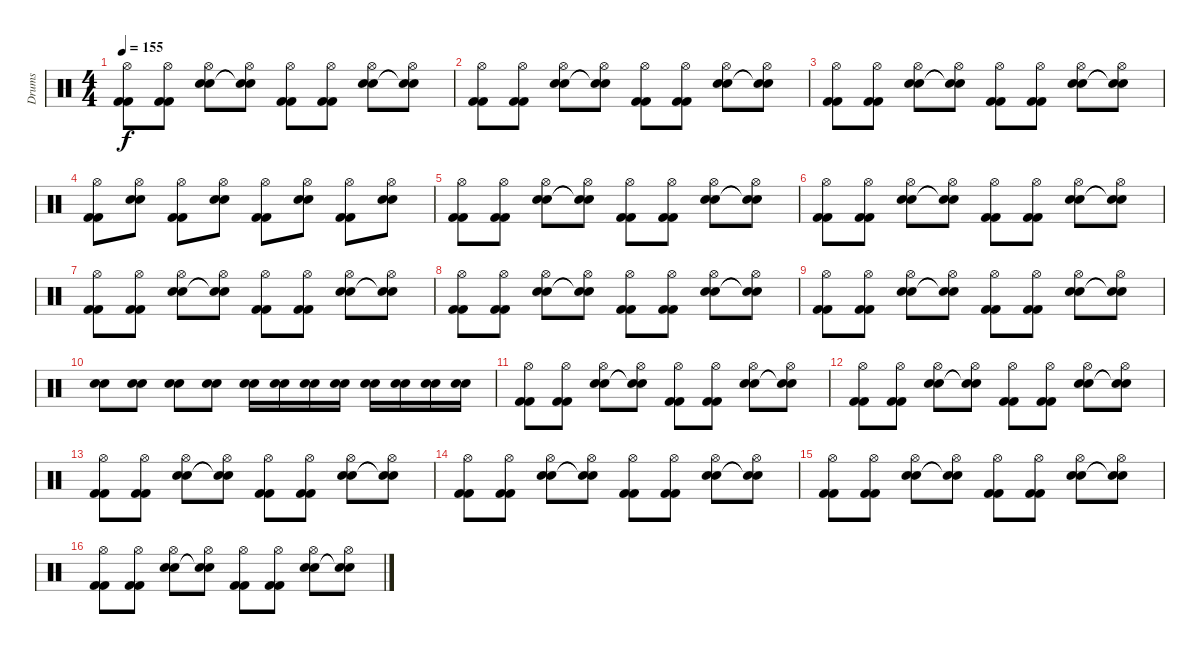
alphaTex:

\track ("Drums" "Drums") {instrument percussion}
\staff {score}
\articulation defaults
\ts (4 4)
\tempo 155
\clef neutral
\ks c
("Hi-Hat (open)" "Kick (hit) 2" "Kick (hit) 2").8{dy f} ("Hi-Hat (open)" "Kick (hit) 2" "Kick (hit) 2").8 ("Hi-Hat (open)" "Electric Snare (hit)" "Electric Snare (hit)").8 ("Hi-Hat (open)" "Snare (hit)"{t} "Snare (hit)"{t}).8 ("Hi-Hat (open)" "Kick (hit) 2" "Kick (hit) 2").8 ("Hi-Hat (open)" "Kick (hit) 2" "Kick (hit) 2").8 ("Hi-Hat (open)" "Electric Snare (hit)" "Electric Snare (hit)").8 ("Hi-Hat (open)" "Snare (hit)"{t} "Snare (hit)"{t}).8 |
("Hi-Hat (open)" "Kick (hit) 2" "Kick (hit) 2").8 ("Hi-Hat (open)" "Kick (hit) 2" "Kick (hit) 2").8 ("Hi-Hat (open)" "Electric Snare (hit)" "Electric Snare (hit)").8 ("Hi-Hat (open)" "Snare (hit)"{t} "Snare (hit)"{t}).8 ("Hi-Hat (open)" "Kick (hit) 2" "Kick (hit) 2").8 ("Hi-Hat (open)" "Kick (hit) 2" "Kick (hit) 2").8 ("Hi-Hat (open)" "Electric Snare (hit)" "Electric Snare (hit)").8 ("Hi-Hat (open)" "Snare (hit)"{t} "Snare (hit)"{t}).8 |
("Hi-Hat (open)" "Kick (hit) 2" "Kick (hit) 2").8 ("Hi-Hat (open)" "Kick (hit) 2" "Kick (hit) 2").8 ("Hi-Hat (open)" "Electric Snare (hit)" "Electric Snare (hit)").8 ("Hi-Hat (open)" "Snare (hit)"{t} "Snare (hit)"{t}).8 ("Hi-Hat (open)" "Kick (hit) 2" "Kick (hit) 2").8 ("Hi-Hat (open)" "Kick (hit) 2" "Kick (hit) 2").8 ("Hi-Hat (open)" "Electric Snare (hit)" "Electric Snare (hit)").8 ("Hi-Hat (open)" "Snare (hit)"{t} "Snare (hit)"{t}).8 |
("Hi-Hat (open)" "Kick (hit) 2" "Kick (hit) 2").8 ("Hi-Hat (open)" "Electric Snare (hit)" "Electric Snare (hit)").8 ("Hi-Hat (open)" "Kick (hit) 2" "Kick (hit) 2").8 ("Hi-Hat (open)" "Electric Snare (hit)" "Electric Snare (hit)").8 ("Hi-Hat (open)" "Kick (hit) 2" "Kick (hit) 2").8 ("Hi-Hat (open)" "Electric Snare (hit)" "Electric Snare (hit)").8 ("Hi-Hat (open)" "Kick (hit) 2" "Kick (hit) 2").8 ("Hi-Hat (open)" "Electric Snare (hit)" "Electric Snare (hit)").8 |
("Hi-Hat (open)" "Kick (hit) 2" "Kick (hit) 2").8 ("Hi-Hat (open)" "Kick (hit) 2" "Kick (hit) 2").8 ("Hi-Hat (open)" "Electric Snare (hit)" "Electric Snare (hit)").8 ("Hi-Hat (open)" "Snare (hit)"{t} "Snare (hit)"{t}).8 ("Hi-Hat (open)" "Kick (hit) 2" "Kick (hit) 2").8 ("Hi-Hat (open)" "Kick (hit) 2" "Kick (hit) 2").8 ("Hi-Hat (open)" "Electric Snare (hit)" "Electric Snare (hit)").8 ("Hi-Hat (open)" "Snare (hit)"{t} "Snare (hit)"{t}).8 |
("Hi-Hat (open)" "Kick (hit) 2" "Kick (hit) 2").8 ("Hi-Hat (open)" "Kick (hit) 2" "Kick (hit) 2").8 ("Hi-Hat (open)" "Electric Snare (hit)" "Electric Snare (hit)").8 ("Hi-Hat (open)" "Snare (hit)"{t} "Snare (hit)"{t}).8 ("Hi-Hat (open)" "Kick (hit) 2" "Kick (hit) 2").8 ("Hi-Hat (open)" "Kick (hit) 2" "Kick (hit) 2").8 ("Hi-Hat (open)" "Electric Snare (hit)" "Electric Snare (hit)").8 ("Hi-Hat (open)" "Snare (hit)"{t} "Snare (hit)"{t}).8 |
("Hi-Hat (open)" "Kick (hit) 2" "Kick (hit) 2").8 ("Hi-Hat (open)" "Kick (hit) 2" "Kick (hit) 2").8 ("Hi-Hat (open)" "Electric Snare (hit)" "Electric Snare (hit)").8 ("Hi-Hat (open)" "Snare (hit)"{t} "Snare (hit)"{t}).8 ("Hi-Hat (open)" "Kick (hit) 2" "Kick (hit) 2").8 ("Hi-Hat (open)" "Kick (hit) 2" "Kick (hit) 2").8 ("Hi-Hat (open)" "Electric Snare (hit)" "Electric Snare (hit)").8 ("Hi-Hat (open)" "Snare (hit)"{t} "Snare (hit)"{t}).8 |
("Hi-Hat (open)" "Kick (hit) 2" "Kick (hit) 2").8 ("Hi-Hat (open)" "Kick (hit) 2" "Kick (hit) 2").8 ("Hi-Hat (open)" "Electric Snare (hit)" "Electric Snare (hit)").8 ("Hi-Hat (open)" "Snare (hit)"{t} "Snare (hit)"{t}).8 ("Hi-Hat (open)" "Kick (hit) 2" "Kick (hit) 2").8 ("Hi-Hat (open)" "Kick (hit) 2" "Kick (hit) 2").8 ("Hi-Hat (open)" "Electric Snare (hit)" "Electric Snare (hit)").8 ("Hi-Hat (open)" "Snare (hit)"{t} "Snare (hit)"{t}).8 |
("Hi-Hat (open)" "Kick (hit) 2" "Kick (hit) 2").8 ("Hi-Hat (open)" "Kick (hit) 2" "Kick (hit) 2").8 ("Hi-Hat (open)" "Electric Snare (hit)" "Electric Snare (hit)").8 ("Hi-Hat (open)" "Snare (hit)"{t} "Snare (hit)"{t}).8 ("Hi-Hat (open)" "Kick (hit) 2" "Kick (hit) 2").8 ("Hi-Hat (open)" "Kick (hit) 2" "Kick (hit) 2").8 ("Hi-Hat (open)" "Electric Snare (hit)" "Electric Snare (hit)").8 ("Hi-Hat (open)" "Snare (hit)"{t} "Snare (hit)"{t}).8 |
("Electric Snare (hit)" "Electric Snare (hit)").8 ("Electric Snare (hit)" "Electric Snare (hit)").8 ("Electric Snare (hit)" "Electric Snare (hit)").8 ("Electric Snare (hit)" "Electric Snare (hit)").8 ("Electric Snare (hit)" "Electric Snare (hit)").16 ("Electric Snare (hit)" "Electric Snare (hit)").16 ("Electric Snare (hit)" "Electric Snare (hit)").16 ("Electric Snare (hit)" "Electric Snare (hit)").16 ("Electric Snare (hit)" "Electric Snare (hit)").16 ("Electric Snare (hit)" "Electric Snare (hit)").16 ("Electric Snare (hit)" "Electric Snare (hit)").16 ("Electric Snare (hit)" "Electric Snare (hit)").16 |
("Hi-Hat (open)" "Kick (hit) 2" "Kick (hit) 2").8 ("Hi-Hat (open)" "Kick (hit) 2" "Kick (hit) 2").8 ("Hi-Hat (open)" "Electric Snare (hit)" "Electric Snare (hit)").8 ("Hi-Hat (open)" "Snare (hit)"{t} "Snare (hit)"{t}).8 ("Hi-Hat (open)" "Kick (hit) 2" "Kick (hit) 2").8 ("Hi-Hat (open)" "Kick (hit) 2" "Kick (hit) 2").8 ("Hi-Hat (open)" "Electric Snare (hit)" "Electric Snare (hit)").8 ("Hi-Hat (open)" "Snare (hit)"{t} "Snare (hit)"{t}).8 |
("Hi-Hat (open)" "Kick (hit) 2" "Kick (hit) 2").8 ("Hi-Hat (open)" "Kick (hit) 2" "Kick (hit) 2").8 ("Hi-Hat (open)" "Electric Snare (hit)" "Electric Snare (hit)").8 ("Hi-Hat (open)" "Snare (hit)"{t} "Snare (hit)"{t}).8 ("Hi-Hat (open)" "Kick (hit) 2" "Kick (hit) 2").8 ("Hi-Hat (open)" "Kick (hit) 2" "Kick (hit) 2").8 ("Hi-Hat (open)" "Electric Snare (hit)" "Electric Snare (hit)").8 ("Hi-Hat (open)" "Snare (hit)"{t} "Snare (hit)"{t}).8 |
("Hi-Hat (open)" "Kick (hit) 2" "Kick (hit) 2").8 ("Hi-Hat (open)" "Kick (hit) 2" "Kick (hit) 2").8 ("Hi-Hat (open)" "Electric Snare (hit)" "Electric Snare (hit)").8 ("Hi-Hat (open)" "Snare (hit)"{t} "Snare (hit)"{t}).8 ("Hi-Hat (open)" "Kick (hit) 2" "Kick (hit) 2").8 ("Hi-Hat (open)" "Kick (hit) 2" "Kick (hit) 2").8 ("Hi-Hat (open)" "Electric Snare (hit)" "Electric Snare (hit)").8 ("Hi-Hat (open)" "Snare (hit)"{t} "Snare (hit)"{t}).8 |
("Hi-Hat (open)" "Kick (hit) 2" "Kick (hit) 2").8 ("Hi-Hat (open)" "Kick (hit) 2" "Kick (hit) 2").8 ("Hi-Hat (open)" "Electric Snare (hit)" "Electric Snare (hit)").8 ("Hi-Hat (open)" "Snare (hit)"{t} "Snare (hit)"{t}).8 ("Hi-Hat (open)" "Kick (hit) 2" "Kick (hit) 2").8 ("Hi-Hat (open)" "Kick (hit) 2" "Kick (hit) 2").8 ("Hi-Hat (open)" "Electric Snare (hit)" "Electric Snare (hit)").8 ("Hi-Hat (open)" "Snare (hit)"{t} "Snare (hit)"{t}).8 |
("Hi-Hat (open)" "Kick (hit) 2" "Kick (hit) 2").8 ("Hi-Hat (open)" "Kick (hit) 2" "Kick (hit) 2").8 ("Hi-Hat (open)" "Electric Snare (hit)" "Electric Snare (hit)").8 ("Hi-Hat (open)" "Snare (hit)"{t} "Snare (hit)"{t}).8 ("Hi-Hat (open)" "Kick (hit) 2" "Kick (hit) 2").8 ("Hi-Hat (open)" "Kick (hit) 2" "Kick (hit) 2").8 ("Hi-Hat (open)" "Electric Snare (hit)" "Electric Snare (hit)").8 ("Hi-Hat (open)" "Snare (hit)"{t} "Snare (hit)"{t}).8 |
("Hi-Hat (open)" "Kick (hit) 2" "Kick (hit) 2").8 ("Hi-Hat (open)" "Kick (hit) 2" "Kick (hit) 2").8 ("Hi-Hat (open)" "Electric Snare (hit)" "Electric Snare (hit)").8 ("Hi-Hat (open)" "Snare (hit)"{t} "Snare (hit)"{t}).8 ("Hi-Hat (open)" "Kick (hit) 2" "Kick (hit) 2").8 ("Hi-Hat (open)" "Kick (hit) 2" "Kick (hit) 2").8 ("Hi-Hat (open)" "Electric Snare (hit)" "Electric Snare (hit)").8 ("Hi-Hat (open)" "Snare (hit)"{t} "Snare (hit)"{t}).8
